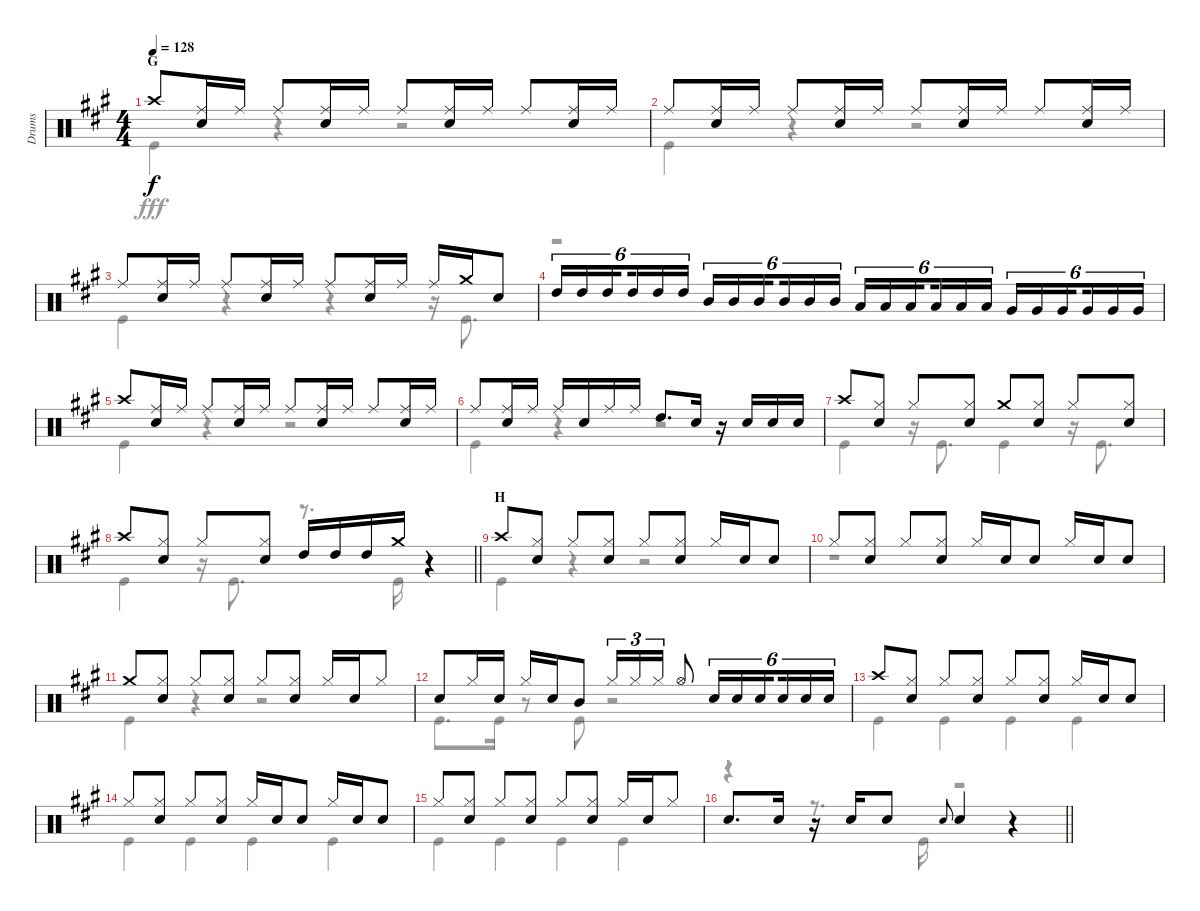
\track ("Drums" "Drums") {instrument percussion}
\staff {score}
\articulation defaults
\voice
\ts (4 4)
\section ("" "G")
\tempo 128
\clef neutral
\ks a "Crash high (hit)".8{dy f}
("Ride (middle)" "Snare (hit) 2").16 "Ride (middle)".16 "Ride (middle)".8 ("Ride (middle)" "Snare (hit) 2").16 "Ride (middle)".16 "Ride (middle)".8 ("Ride (middle)" "Snare (hit) 2").16 "Ride (middle)".16 "Ride (middle)".8 ("Ride (middle)" "Snare (hit) 2").16 "Ride (middle)".16 |
"Ride (middle)".8 ("Ride (middle)" "Snare (hit) 2").16 "Ride (middle)".16 "Ride (middle)".8 ("Ride (middle)" "Snare (hit) 2").16 "Ride (middle)".16 "Ride (middle)".8 ("Ride (middle)" "Snare (hit) 2").16 "Ride (middle)".16 "Ride (middle)".8 ("Ride (middle)" "Snare (hit) 2").16 "Ride (middle)".16 |
"Ride (middle)".8 ("Ride (middle)" "Snare (hit) 2").16 "Ride (middle)".16 "Ride (middle)".8 ("Ride (middle)" "Snare (hit) 2").16 "Ride (middle)".16 "Ride (middle)".8 ("Ride (middle)" "Snare (hit) 2").16 "Ride (middle)".16 "Ride (middle)".16 "Crash medium (hit)".16 "Snare (hit) 2".8 |
"High Tom (hit)".16{tu (6 4)} "High Tom (hit)".16{tu (6 4)} "High Tom (hit)".16{tu (6 4) beam splitsecondary} "High Tom (hit)".16{tu (6 4)} "High Tom (hit)".16{tu (6 4)} "High Tom (hit)".16{tu (6 4)} "Mid Tom (hit)".16{tu (6 4)} "Mid Tom (hit)".16{tu (6 4)} "Mid Tom (hit)".16{tu (6 4) beam splitsecondary} "Mid Tom (hit)".16{tu (6 4)} "Mid Tom (hit)".16{tu (6 4)} "Mid Tom (hit)".16{tu (6 4)} "Low Tom (hit)".16{tu (6 4)} "Low Tom (hit)".16{tu (6 4)} "Low Tom (hit)".16{tu (6 4) beam splitsecondary} "Low Tom (hit)".16{tu (6 4)} "Low Tom (hit)".16{tu (6 4)} "Low Tom (hit)".16{tu (6 4)} "Very Low Tom (hit)".16{tu (6 4)} "Very Low Tom (hit)".16{tu (6 4)} "Very Low Tom (hit)".16{tu (6 4) beam splitsecondary} "Very Low Tom (hit)".16{tu (6 4)} "Very Low Tom (hit)".16{tu (6 4)} "Very Low Tom (hit)".16{tu (6 4)} |
"Crash high (hit)".8 ("Ride (middle)" "Snare (hit) 2").16 "Ride (middle)".16 "Ride (middle)".8 ("Ride (middle)" "Snare (hit) 2").16 "Ride (middle)".16 "Ride (middle)".8 ("Ride (middle)" "Snare (hit) 2").16 "Ride (middle)".16 "Ride (middle)".8 ("Ride (middle)" "Snare (hit) 2").16 "Ride (middle)".16 |
"Ride (middle)".8 ("Ride (middle)" "Snare (hit) 2").16 "Ride (middle)".16 "Ride (middle)".16 "Snare (hit) 2".16 "Ride (middle)".16 "Ride (middle)".16 "High Tom (hit)".8{d} "Snare (hit) 2".16 r.16 "Snare (hit) 2".16 "Snare (hit) 2".16 "Snare (hit) 2".16 |
"Crash high (hit)".8 ("Hi-Hat (closed)" "Snare (hit) 2").8 "Hi-Hat (closed)".8 ("Hi-Hat (closed)" "Snare (hit) 2").8 "Crash medium (hit)".8 ("Hi-Hat (closed)" "Snare (hit) 2").8 "Hi-Hat (closed)".8 ("Hi-Hat (closed)" "Snare (hit) 2").8 |
\barLineRight lightlight "Crash high (hit)".8
("Hi-Hat (closed)" "Snare (hit) 2").8 "Hi-Hat (closed)".8 ("Hi-Hat (closed)" "Snare (hit) 2").8 "High Tom (hit)".16 "High Tom (hit)".16 "High Tom (hit)".16 "Crash medium (hit)".16 r.4 |
\section ("" "H")
"Crash high (hit)".8 ("Hi-Hat (closed)" "Snare (hit) 2").8 "Hi-Hat (closed)".8 ("Hi-Hat (closed)" "Snare (hit) 2").8 "Hi-Hat (closed)".8 ("Hi-Hat (closed)" "Snare (hit) 2").8 "Hi-Hat (closed)".16 "Snare (hit) 2".16 "Snare (hit) 2".8 |
"Hi-Hat (closed)".8 ("Hi-Hat (closed)" "Snare (hit) 2").8 "Hi-Hat (closed)".8 ("Hi-Hat (closed)" "Snare (hit) 2").8 "Hi-Hat (closed)".16 "Snare (hit) 2".16 "Snare (hit) 2".8 "Hi-Hat (closed)".16 "Snare (hit) 2".16 "Snare (hit) 2".8 |
"Crash medium (hit)".8 ("Hi-Hat (closed)" "Snare (hit) 2").8 "Hi-Hat (closed)".8 ("Hi-Hat (closed)" "Snare (hit) 2").8 "Hi-Hat (closed)".8 ("Hi-Hat (closed)" "Snare (hit) 2").8 "Hi-Hat (closed)".16 "Snare (hit) 2".16 "Hi-Hat (closed)".8 |
"Snare (hit) 2".8 "Hi-Hat (closed)".16 "Snare (hit) 2".16 "Hi-Hat (closed)".16 "Snare (hit) 2".16 "Mid Tom (hit)".8 "Hi-Hat (closed)".16{tu (3 2)} "Hi-Hat (closed)".16{tu (3 2)} "Hi-Hat (closed)".16{tu (3 2)} "Hi-Hat (open)".8 "Snare (hit) 2".16{tu (6 4)} "Snare (hit) 2".16{tu (6 4)} "Snare (hit) 2".16{tu (6 4) beam splitsecondary} "Snare (hit) 2".16{tu (6 4)} "Snare (hit) 2".16{tu (6 4)} "Snare (hit) 2".16{tu (6 4)} |
"Crash high (hit)".8 ("Hi-Hat (closed)" "Snare (hit) 2").8 "Hi-Hat (closed)".8 ("Hi-Hat (closed)" "Snare (hit) 2").8 "Hi-Hat (closed)".8 ("Hi-Hat (closed)" "Snare (hit) 2").8 "Hi-Hat (closed)".16 "Snare (hit) 2".16 "Snare (hit) 2".8 |
"Hi-Hat (closed)".8 ("Hi-Hat (closed)" "Snare (hit) 2").8 "Hi-Hat (closed)".8 ("Hi-Hat (closed)" "Snare (hit) 2").8 "Hi-Hat (closed)".16 "Snare (hit) 2".16 "Snare (hit) 2".8 "Hi-Hat (closed)".16 "Snare (hit) 2".16 "Snare (hit) 2".8 |
"Hi-Hat (closed)".8 ("Hi-Hat (closed)" "Snare (hit) 2").8 "Hi-Hat (closed)".8 ("Hi-Hat (closed)" "Snare (hit) 2").8 "Hi-Hat (closed)".8 ("Hi-Hat (closed)" "Snare (hit) 2").8 "Hi-Hat (closed)".16 "Snare (hit) 2".16 "Hi-Hat (closed)".8 |
\barLineRight lightlight "Snare (hit) 2".8{d} "Snare (hit) 2".16
r.16 "Snare (hit) 2".16 "Snare (hit) 2".8 "Snare (hit) 2".8{gr onbeat} "Snare (hit) 2".4 r.4
\voice
\clef neutral
\ottava regular
\simile none
\ks a "Kick (hit)".4{dy fff}
r.4 r.2 |
"Kick (hit)".4 r.4 r.2 |
"Kick (hit)".4 r.4 r.4 r.16 "Kick (hit)".8{d} |
r.1 |
"Kick (hit)".4 r.4 r.2 |
"Kick (hit)".4 r.4 r.2 |
"Kick (hit)".4 r.16 "Kick (hit)".8{d} "Kick (hit)".4 r.16 "Kick (hit)".8{d} |
\barLineRight lightlight "Kick (hit)".4
r.16 "Kick (hit)".8{d} r.8{d} "Kick (hit)".16 r.4 |
"Kick (hit)".4 r.4 r.2 |
r.1 |
"Kick (hit)".4 r.4 r.2 |
"Kick (hit)".8{d} "Kick (hit)".16 r.8 "Kick (hit)".8 r.2 |
"Kick (hit)".4 "Kick (hit)".4 "Kick (hit)".4 "Kick (hit)".4 |
"Kick (hit)".4 "Kick (hit)".4 "Kick (hit)".4 "Kick (hit)".4 |
"Kick (hit)".4 "Kick (hit)".4 "Kick (hit)".4 "Kick (hit)".4 |
\barLineRight lightlight
r.4 r.8{d} "Kick (hit)".16 r.2
